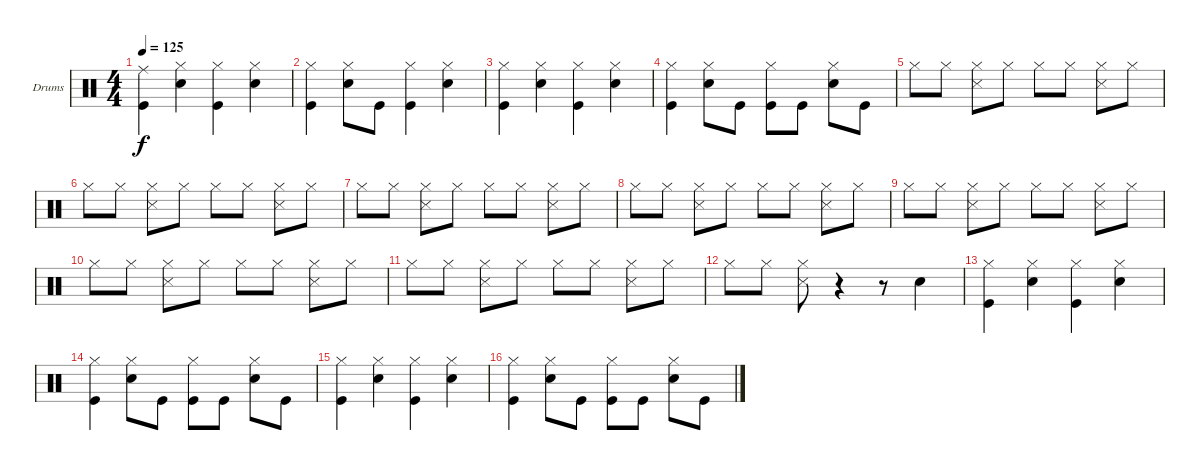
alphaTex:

\defaultSystemsLayout 4
\bracketExtendMode groupsimilarinstruments
\firstSystemTrackNameOrientation horizontal
\otherSystemsTrackNameOrientation horizontal
\track ("Drumkit" "Drums") {instrument percussion}
\staff {score}
\articulation defaults
\ts (4 4)
\tempo 125
\clef neutral
\scale
0.333333
\ks c
("Ride (middle)" "Kick (hit)").4{dy f} ("Snare (hit) 2" "Hi-Hat (closed)").4 ("Hi-Hat (closed)" "Kick (hit)").4 ("Hi-Hat (closed)" "Snare (hit) 2").4 |
\scale
0.333333 ("Hi-Hat (closed)" "Kick (hit)").4 ("Hi-Hat (closed)" "Snare (hit) 2").8 "Kick (hit)".8 ("Kick (hit)" "Hi-Hat (closed)").4 ("Hi-Hat (closed)" "Snare (hit) 2").4 |
\scale
0.333333 ("Hi-Hat (closed)" "Kick (hit)").4 ("Hi-Hat (closed)" "Snare (hit) 2").4 ("Hi-Hat (closed)" "Kick (hit)").4 ("Hi-Hat (closed)" "Snare (hit) 2").4 |
\scale
0.333333 ("Hi-Hat (closed)" "Kick (hit)").4 ("Snare (hit) 2" "Hi-Hat (closed)").8 "Kick (hit)".8 ("Kick (hit)" "Hi-Hat (closed)").8 "Kick (hit)".8 ("Snare (hit) 2" "Hi-Hat (closed)").8 "Kick (hit)".8 |
\scale
0.333333 "Hi-Hat (closed)".8 "Hi-Hat (closed)".8 ("Hi-Hat (closed)" "Snare (side stick) 3").8 "Hi-Hat (closed)".8 "Hi-Hat (closed)".8 "Hi-Hat (closed)".8 ("Hi-Hat (closed)" "Snare (side stick) 3").8 "Hi-Hat (closed)".8 |
\scale
0.333333 "Hi-Hat (closed)".8 "Hi-Hat (closed)".8 ("Hi-Hat (closed)" "Snare (side stick) 3").8 "Hi-Hat (closed)".8 "Hi-Hat (closed)".8 "Hi-Hat (closed)".8 ("Hi-Hat (closed)" "Snare (side stick) 3").8 "Hi-Hat (closed)".8 |
\scale
0.333333 "Hi-Hat (closed)".8 "Hi-Hat (closed)".8 ("Hi-Hat (closed)" "Snare (side stick) 3").8 "Hi-Hat (closed)".8 "Hi-Hat (closed)".8 "Hi-Hat (closed)".8 ("Hi-Hat (closed)" "Snare (side stick) 3").8 "Hi-Hat (closed)".8 |
\scale
0.333333 "Hi-Hat (closed)".8 "Hi-Hat (closed)".8 ("Hi-Hat (closed)" "Snare (side stick) 3").8 "Hi-Hat (closed)".8 "Hi-Hat (closed)".8 "Hi-Hat (closed)".8 ("Hi-Hat (closed)" "Snare (side stick) 3").8 "Hi-Hat (closed)".8 |
\scale
0.333333 "Hi-Hat (closed)".8 "Hi-Hat (closed)".8 ("Hi-Hat (closed)" "Snare (side stick) 3").8 "Hi-Hat (closed)".8 "Hi-Hat (closed)".8 "Hi-Hat (closed)".8 ("Hi-Hat (closed)" "Snare (side stick) 3").8 "Hi-Hat (closed)".8 |
\scale
0.333333 "Hi-Hat (closed)".8 "Hi-Hat (closed)".8 ("Hi-Hat (closed)" "Snare (side stick) 3").8 "Hi-Hat (closed)".8 "Hi-Hat (closed)".8 "Hi-Hat (closed)".8 ("Hi-Hat (closed)" "Snare (side stick) 3").8 "Hi-Hat (closed)".8 |
\scale
0.333333 "Hi-Hat (closed)".8 "Hi-Hat (closed)".8 ("Hi-Hat (closed)" "Snare (side stick) 3").8 "Hi-Hat (closed)".8 "Hi-Hat (closed)".8 "Hi-Hat (closed)".8 ("Hi-Hat (closed)" "Snare (side stick) 3").8 "Hi-Hat (closed)".8 |
\scale
0.333333 "Hi-Hat (closed)".8 "Hi-Hat (closed)".8 ("Hi-Hat (closed)" "Snare (side stick) 3").8 r.4 r.8 "Snare (hit) 2".4 |
\scale
0.333333 ("Hi-Hat (closed)" "Kick (hit)").4 ("Hi-Hat (closed)" "Snare (hit) 2").4 ("Hi-Hat (closed)" "Kick (hit)").4 ("Hi-Hat (closed)" "Snare (hit) 2").4 |
\scale
0.333333 ("Hi-Hat (closed)" "Kick (hit)").4 ("Snare (hit) 2" "Hi-Hat (closed)").8 "Kick (hit)".8 ("Kick (hit)" "Hi-Hat (closed)").8 "Kick (hit)".8 ("Snare (hit) 2" "Hi-Hat (closed)").8 "Kick (hit)".8 |
\scale
0.333333 ("Hi-Hat (closed)" "Kick (hit)").4 ("Hi-Hat (closed)" "Snare (hit) 2").4 ("Hi-Hat (closed)" "Kick (hit)").4 ("Hi-Hat (closed)" "Snare (hit) 2").4 |
\scale
0.333333 ("Hi-Hat (closed)" "Kick (hit)").4 ("Snare (hit) 2" "Hi-Hat (closed)").8 "Kick (hit)".8 ("Kick (hit)" "Hi-Hat (closed)").8 "Kick (hit)".8 ("Snare (hit) 2" "Hi-Hat (closed)").8 "Kick (hit)".8
